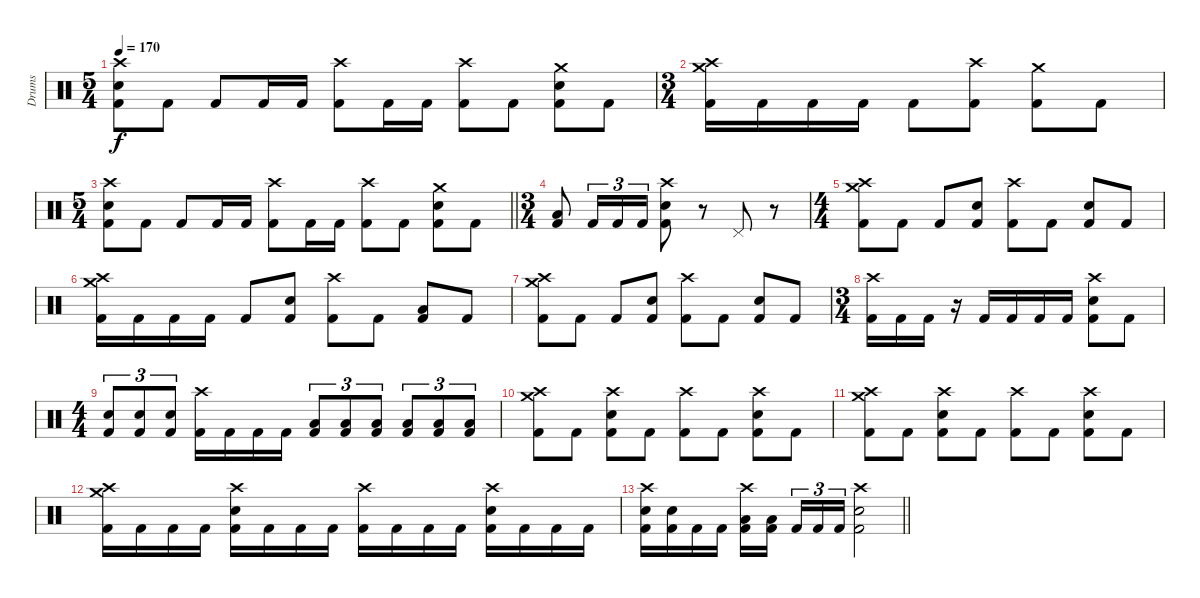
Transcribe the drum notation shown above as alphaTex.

\track ("Drums" "Drums") {instrument percussion}
\staff
\articulation defaults
\ts (5 4)
\tempo 170
\clef neutral
\ks c
("Crash high (hit)" "Electric Snare (hit)" "Kick (hit) 2").8{dy f} "Kick (hit) 2".8 "Kick (hit) 2".8 "Kick (hit) 2".16 "Kick (hit) 2".16 ("Crash high (hit)" "Kick (hit) 2").8 "Kick (hit) 2".16 "Kick (hit) 2".16 ("Crash high (hit)" "Kick (hit) 2").8 "Kick (hit) 2".8 ("Crash medium (hit)" "Electric Snare (hit)" "Kick (hit) 2").8 "Kick (hit) 2".8 |
\ts (3 4)
("Crash medium (hit)" "Crash high (hit)" "Kick (hit) 2").16 "Kick (hit) 2".16 "Kick (hit) 2".16 "Kick (hit) 2".16 "Kick (hit) 2".8 ("Crash high (hit)" "Kick (hit) 2").8 ("Crash medium (hit)" "Kick (hit) 2").8 "Kick (hit) 2".8 |
\ts (5 4)
\barLineRight lightlight
("Crash high (hit)" "Electric Snare (hit)" "Kick (hit) 2").8 "Kick (hit) 2".8 "Kick (hit) 2".8 "Kick (hit) 2".16 "Kick (hit) 2".16 ("Crash high (hit)" "Kick (hit) 2").8 "Kick (hit) 2".16 "Kick (hit) 2".16 ("Crash high (hit)" "Kick (hit) 2").8 "Kick (hit) 2".8 ("Crash medium (hit)" "Electric Snare (hit)" "Kick (hit) 2").8 "Kick (hit) 2".8 |
\ts (3 4)
("Low Floor Tom (hit)" "Kick (hit) 2").8 "Kick (hit) 2".16{tu (3 2)} "Kick (hit) 2".16{tu (3 2)} "Kick (hit) 2".16{tu (3 2)} ("Crash high (hit)" "Electric Snare (hit)" "Kick (hit) 2").8 r.8 "Pedal Hi-Hat (hit)".8 r.8 |
\ts (4 4)
("Crash medium (hit)" "Crash high (hit)" "Kick (hit) 2").8 "Kick (hit) 2".8 "Kick (hit) 2".8 ("Electric Snare (hit)" "Kick (hit) 2").8 ("Crash high (hit)" "Kick (hit) 2").8 "Kick (hit) 2".8 ("Electric Snare (hit)" "Kick (hit) 2").8 "Kick (hit) 2".8 |
("Crash medium (hit)" "Crash high (hit)" "Kick (hit) 2").16 "Kick (hit) 2".16 "Kick (hit) 2".16 "Kick (hit) 2".16 "Kick (hit) 2".8 ("Electric Snare (hit)" "Kick (hit) 2").8 ("Crash high (hit)" "Kick (hit) 2").8 "Kick (hit) 2".8 ("Low Floor Tom (hit)" "Kick (hit) 2").8 "Kick (hit) 2".8 |
("Crash medium (hit)" "Crash high (hit)" "Kick (hit) 2").8 "Kick (hit) 2".8 "Kick (hit) 2".8 ("Electric Snare (hit)" "Kick (hit) 2").8 ("Crash high (hit)" "Kick (hit) 2").8 "Kick (hit) 2".8 ("Electric Snare (hit)" "Kick (hit) 2").8 "Kick (hit) 2".8 |
\ts (3 4)
("Crash high (hit)" "Kick (hit) 2").16 "Kick (hit) 2".16 "Kick (hit) 2".16 r.16 "Kick (hit) 2".16 "Kick (hit) 2".16 "Kick (hit) 2".16 "Kick (hit) 2".16 ("Crash high (hit)" "Electric Snare (hit)" "Kick (hit) 2").8 "Kick (hit) 2".8 |
\ts (4 4)
("Electric Snare (hit)" "Kick (hit) 2").8{tu (3 2)} ("Electric Snare (hit)" "Kick (hit) 2").8{tu (3 2)} ("Electric Snare (hit)" "Kick (hit) 2").8{tu (3 2)} ("Crash high (hit)" "Kick (hit) 2").16 "Kick (hit) 2".16 "Kick (hit) 2".16 "Kick (hit) 2".16 ("Low Floor Tom (hit)" "Kick (hit) 2").8{tu (3 2)} ("Low Floor Tom (hit)" "Kick (hit) 2").8{tu (3 2)} ("Low Floor Tom (hit)" "Kick (hit) 2").8{tu (3 2)} ("Low Floor Tom (hit)" "Kick (hit) 2").8{tu (3 2)} ("Low Floor Tom (hit)" "Kick (hit) 2").8{tu (3 2)} ("Low Floor Tom (hit)" "Kick (hit) 2").8{tu (3 2)} |
("Crash medium (hit)" "Crash high (hit)" "Kick (hit) 2").8 "Kick (hit) 2".8 ("Crash high (hit)" "Electric Snare (hit)" "Kick (hit) 2").8 "Kick (hit) 2".8 ("Crash high (hit)" "Kick (hit) 2").8 "Kick (hit) 2".8 ("Crash high (hit)" "Electric Snare (hit)" "Kick (hit) 2").8 "Kick (hit) 2".8 |
("Crash medium (hit)" "Crash high (hit)" "Kick (hit) 2").8 "Kick (hit) 2".8 ("Crash high (hit)" "Electric Snare (hit)" "Kick (hit) 2").8 "Kick (hit) 2".8 ("Crash high (hit)" "Kick (hit) 2").8 "Kick (hit) 2".8 ("Crash high (hit)" "Electric Snare (hit)" "Kick (hit) 2").8 "Kick (hit) 2".8 |
("Crash medium (hit)" "Crash high (hit)" "Kick (hit) 2").16 "Kick (hit) 2".16 "Kick (hit) 2".16 "Kick (hit) 2".16 ("Crash high (hit)" "Electric Snare (hit)" "Kick (hit) 2").16 "Kick (hit) 2".16 "Kick (hit) 2".16 "Kick (hit) 2".16 ("Crash high (hit)" "Kick (hit) 2").16 "Kick (hit) 2".16 "Kick (hit) 2".16 "Kick (hit) 2".16 ("Crash high (hit)" "Electric Snare (hit)" "Kick (hit) 2").16 "Kick (hit) 2".16 "Kick (hit) 2".16 "Kick (hit) 2".16 |
\barLineRight lightlight
("Crash high (hit)" "Electric Snare (hit)" "Kick (hit) 2").16 ("Electric Snare (hit)" "Kick (hit) 2").16 "Kick (hit) 2".16 "Kick (hit) 2".16 ("Crash high (hit)" "Low Floor Tom (hit)" "Kick (hit) 2").16 ("Low Floor Tom (hit)" "Kick (hit) 2").16{beam splitsecondary} "Kick (hit) 2".16{tu (3 2)} "Kick (hit) 2".16{tu (3 2)} "Kick (hit) 2".16{tu (3 2)} ("Crash high (hit)" "Electric Snare (hit)" "Kick (hit) 2").2
